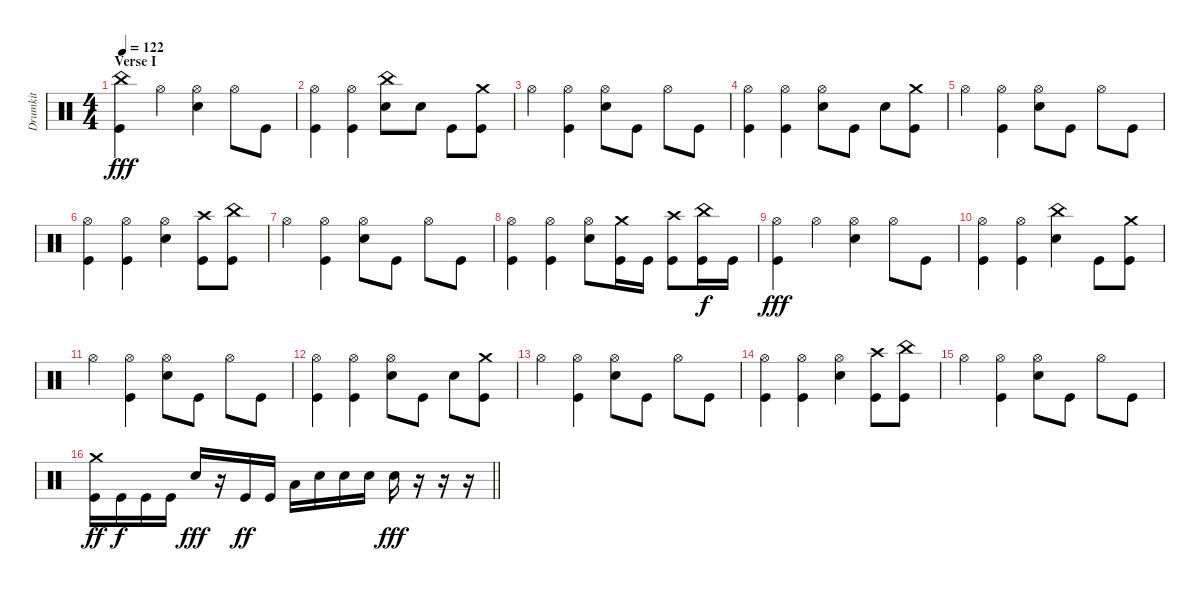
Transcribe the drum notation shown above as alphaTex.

\track ("Drumkit" "Drumkit") {instrument percussion}
\staff {score}
\articulation defaults
\ts (4 4)
\section ("" "Verse I")
\tempo 122
\clef neutral
\ks c
("Kick (hit)" "China (hit)").4{dy fff} "Hi-Hat (open)".4 ("Hi-Hat (open)" "Snare (hit) 2").4 "Hi-Hat (open)".8 "Kick (hit)".8 |
("Kick (hit)" "Hi-Hat (open)").4 ("Hi-Hat (open)" "Kick (hit)").4 ("Snare (hit) 2" "China (hit)").8 "Snare (hit) 2".8 "Kick (hit)".8 ("Kick (hit)" "Crash medium (hit)").8 |
"Hi-Hat (open)".4 ("Hi-Hat (open)" "Kick (hit)").4 ("Hi-Hat (open)" "Snare (hit) 2").8 "Kick (hit)".8 "Hi-Hat (open)".8 "Kick (hit)".8 |
("Kick (hit)" "Hi-Hat (open)").4 ("Hi-Hat (open)" "Kick (hit)").4 ("Hi-Hat (open)" "Snare (hit) 2").8 "Kick (hit)".8 "Snare (hit) 2".8 ("Kick (hit)" "Crash medium (hit)").8 |
"Hi-Hat (open)".4 ("Hi-Hat (open)" "Kick (hit)").4 ("Hi-Hat (open)" "Snare (hit) 2").8 "Kick (hit)".8 "Hi-Hat (open)".8 "Kick (hit)".8 |
("Kick (hit)" "Hi-Hat (open)").4 ("Hi-Hat (open)" "Kick (hit)").4 ("Hi-Hat (open)" "Snare (hit) 2").4 ("Kick (hit)" "Crash high (hit)").8 ("Kick (hit)" "China (hit)").8 |
"Hi-Hat (open)".4 ("Hi-Hat (open)" "Kick (hit)").4 ("Hi-Hat (open)" "Snare (hit) 2").8 "Kick (hit)".8 "Hi-Hat (open)".8 "Kick (hit)".8 |
("Kick (hit)" "Hi-Hat (open)").4 ("Hi-Hat (open)" "Kick (hit)").4 ("Hi-Hat (open)" "Snare (hit) 2").8 ("Kick (hit)" "Crash medium (hit)").16 "Kick (hit)".16 ("Kick (hit)" "Crash high (hit)").8 ("Kick (hit)" "China (hit)").16{dy f} "Kick (hit)".16 |
("Kick (hit)" "Hi-Hat (open)").4{dy fff} "Hi-Hat (open)".4 ("Hi-Hat (open)" "Snare (hit) 2").4 "Hi-Hat (open)".8 "Kick (hit)".8 |
("Kick (hit)" "Hi-Hat (open)").4 ("Hi-Hat (open)" "Kick (hit)").4 ("Snare (hit) 2" "China (hit)").4 "Kick (hit)".8 ("Kick (hit)" "Crash medium (hit)").8 |
"Hi-Hat (open)".4 ("Hi-Hat (open)" "Kick (hit)").4 ("Hi-Hat (open)" "Snare (hit) 2").8 "Kick (hit)".8 "Hi-Hat (open)".8 "Kick (hit)".8 |
("Kick (hit)" "Hi-Hat (open)").4 ("Hi-Hat (open)" "Kick (hit)").4 ("Hi-Hat (open)" "Snare (hit) 2").8 "Kick (hit)".8 "Snare (hit) 2".8 ("Kick (hit)" "Crash medium (hit)").8 |
"Hi-Hat (open)".4 ("Hi-Hat (open)" "Kick (hit)").4 ("Hi-Hat (open)" "Snare (hit) 2").8 "Kick (hit)".8 "Hi-Hat (open)".8 "Kick (hit)".8 |
("Kick (hit)" "Hi-Hat (open)").4 ("Hi-Hat (open)" "Kick (hit)").4 ("Hi-Hat (open)" "Snare (hit) 2").4 ("Kick (hit)" "Crash high (hit)").8 ("Kick (hit)" "China (hit)").8 |
"Hi-Hat (open)".4 ("Hi-Hat (open)" "Kick (hit)").4 ("Hi-Hat (open)" "Snare (hit) 2").8 "Kick (hit)".8 "Hi-Hat (open)".8 "Kick (hit)".8 |
\barLineRight lightlight
("Crash medium (hit)" "Kick (hit)").16{dy ff} "Kick (hit)".16{dy f} "Kick (hit)".16 "Kick (hit)".16 "Snare (hit) 2".16{dy fff} r.16 "Kick (hit)".16{dy ff} "Kick (hit)".16 "Low Tom (hit)".16 "Snare (hit) 2".16 "Snare (hit) 2".16 "Snare (hit) 2".16 "Snare (hit) 2".16{dy fff} r.16 r.16 r.16
